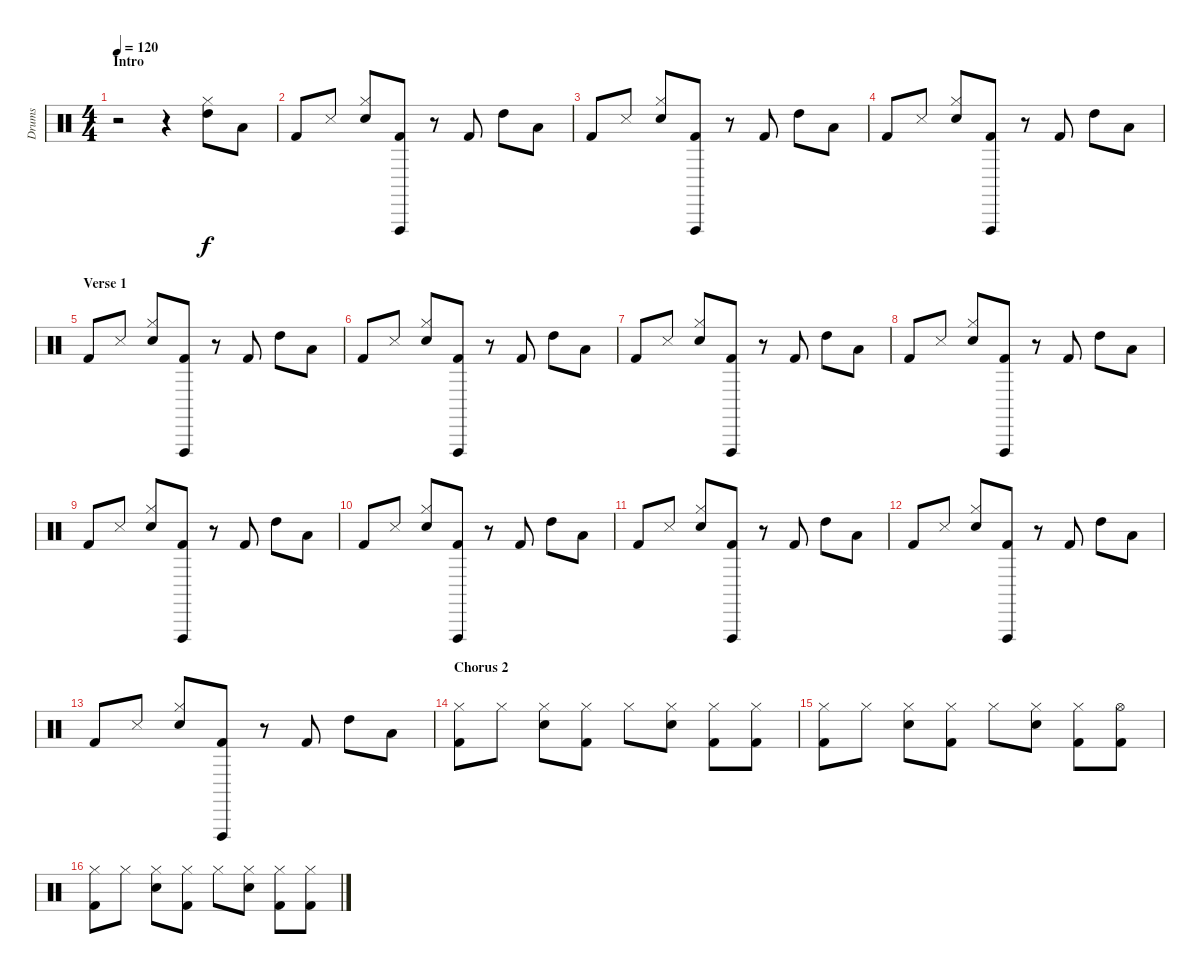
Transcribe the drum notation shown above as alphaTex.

\track ("Drums" "Drums") {instrument percussion}
\staff {score}
\articulation defaults
\ts (4 4)
\section ("" "Intro")
\tempo 120
\clef neutral
\ks c
r.2{dy f} r.4 ("Hi-Hat (closed)" "High Tom (hit)").8 "Low Tom (hit)".8 |
"Kick (hit) 2".8 "Snare (side stick) 3".8 ("Snare (hit) 2" "Hi-Hat (closed)").8 ("Kick (hit) 2" "Vibraslap (hit)").8 r.8 "Kick (hit) 2".8 "High Tom (hit)".8 "Low Tom (hit)".8 |
"Kick (hit) 2".8 "Snare (side stick) 3".8 ("Snare (hit) 2" "Hi-Hat (closed)").8 ("Kick (hit) 2" "Vibraslap (hit)").8 r.8 "Kick (hit) 2".8 "High Tom (hit)".8 "Low Tom (hit)".8 |
"Kick (hit) 2".8 "Snare (side stick) 3".8 ("Snare (hit) 2" "Hi-Hat (closed)").8 ("Kick (hit) 2" "Vibraslap (hit)").8 r.8 "Kick (hit) 2".8 "High Tom (hit)".8 "Low Tom (hit)".8 |
\section ("" "Verse 1")
"Kick (hit) 2".8 "Snare (side stick) 3".8 ("Snare (hit) 2" "Hi-Hat (closed)").8 ("Kick (hit) 2" "Vibraslap (hit)").8 r.8 "Kick (hit) 2".8 "High Tom (hit)".8 "Low Tom (hit)".8 |
"Kick (hit) 2".8 "Snare (side stick) 3".8 ("Snare (hit) 2" "Hi-Hat (closed)").8 ("Kick (hit) 2" "Vibraslap (hit)").8 r.8 "Kick (hit) 2".8 "High Tom (hit)".8 "Low Tom (hit)".8 |
"Kick (hit) 2".8 "Snare (side stick) 3".8 ("Snare (hit) 2" "Hi-Hat (closed)").8 ("Kick (hit) 2" "Vibraslap (hit)").8 r.8 "Kick (hit) 2".8 "High Tom (hit)".8 "Low Tom (hit)".8 |
"Kick (hit) 2".8 "Snare (side stick) 3".8 ("Snare (hit) 2" "Hi-Hat (closed)").8 ("Kick (hit) 2" "Vibraslap (hit)").8 r.8 "Kick (hit) 2".8 "High Tom (hit)".8 "Low Tom (hit)".8 |
"Kick (hit) 2".8 "Snare (side stick) 3".8 ("Snare (hit) 2" "Hi-Hat (closed)").8 ("Kick (hit) 2" "Vibraslap (hit)").8 r.8 "Kick (hit) 2".8 "High Tom (hit)".8 "Low Tom (hit)".8 |
"Kick (hit) 2".8 "Snare (side stick) 3".8 ("Snare (hit) 2" "Hi-Hat (closed)").8 ("Kick (hit) 2" "Vibraslap (hit)").8 r.8 "Kick (hit) 2".8 "High Tom (hit)".8 "Low Tom (hit)".8 |
"Kick (hit) 2".8 "Snare (side stick) 3".8 ("Snare (hit) 2" "Hi-Hat (closed)").8 ("Kick (hit) 2" "Vibraslap (hit)").8 r.8 "Kick (hit) 2".8 "High Tom (hit)".8 "Low Tom (hit)".8 |
"Kick (hit) 2".8 "Snare (side stick) 3".8 ("Snare (hit) 2" "Hi-Hat (closed)").8 ("Kick (hit) 2" "Vibraslap (hit)").8 r.8 "Kick (hit) 2".8 "High Tom (hit)".8 "Low Tom (hit)".8 |
"Kick (hit) 2".8 "Snare (side stick) 3".8 ("Snare (hit) 2" "Hi-Hat (closed)").8 ("Kick (hit) 2" "Vibraslap (hit)").8 r.8 "Kick (hit) 2".8 "High Tom (hit)".8 "Low Tom (hit)".8 |
\section ("" "Chorus 2")
("Kick (hit) 2" "Hi-Hat (closed)").8 "Hi-Hat (closed)".8 ("Snare (hit) 2" "Hi-Hat (closed)").8 ("Kick (hit) 2" "Hi-Hat (closed)").8 "Hi-Hat (closed)".8 ("Snare (hit) 2" "Hi-Hat (closed)").8 ("Kick (hit) 2" "Hi-Hat (closed)").8 ("Kick (hit) 2" "Hi-Hat (closed)").8 |
("Kick (hit) 2" "Hi-Hat (closed)").8 "Hi-Hat (closed)".8 ("Snare (hit) 2" "Hi-Hat (closed)").8 ("Kick (hit) 2" "Hi-Hat (closed)").8 "Hi-Hat (closed)".8 ("Snare (hit) 2" "Hi-Hat (closed)").8 ("Kick (hit) 2" "Hi-Hat (closed)").8 ("Kick (hit) 2" "Hi-Hat (open)").8 |
("Kick (hit) 2" "Hi-Hat (closed)").8 "Hi-Hat (closed)".8 ("Snare (hit) 2" "Hi-Hat (closed)").8 ("Kick (hit) 2" "Hi-Hat (closed)").8 "Hi-Hat (closed)".8 ("Snare (hit) 2" "Hi-Hat (closed)").8 ("Kick (hit) 2" "Hi-Hat (closed)").8 ("Kick (hit) 2" "Hi-Hat (closed)").8
